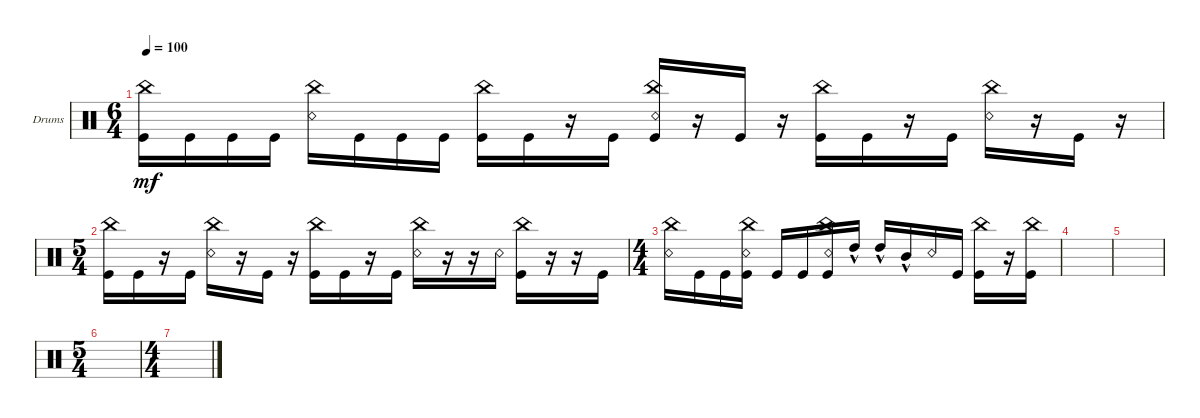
\defaultSystemsLayout 4
\bracketExtendMode groupsimilarinstruments
\firstSystemTrackNameOrientation horizontal
\otherSystemsTrackNameOrientation horizontal
\track ("Drumkit" "Drums") {instrument percussion}
\staff {score}
\articulation defaults
\ts (6 4)
\tempo 100
\clef neutral
\ks c
("Kick (hit)" "China (hit)").16{dy mf} "Kick (hit)".16 "Kick (hit)".16 "Kick (hit)".16 ("Snare (rim shot)" "China (hit)").16 "Kick (hit)".16 "Kick (hit)".16 "Kick (hit)".16 ("Kick (hit)" "China (hit)").16 "Kick (hit)".16 r.16 "Kick (hit)".16 ("Kick (hit)" "Snare (rim shot)" "China (hit)").16 r.16 "Kick (hit)".16 r.16 ("Kick (hit)" "China (hit)").16 "Kick (hit)".16 r.16 "Kick (hit)".16 ("Snare (rim shot)" "China (hit)").16 r.16 "Kick (hit)".16 r.16 |
\ts (5 4)
("Kick (hit)" "China (hit)").16 "Kick (hit)".16 r.16 "Kick (hit)".16 ("Snare (rim shot)" "China (hit)").16 r.16 "Kick (hit)".16 r.16 ("Kick (hit)" "China (hit)").16 "Kick (hit)".16 r.16 "Kick (hit)".16 ("China (hit)" "Snare (rim shot)").16 r.16 r.16 "Snare (rim shot)".16 ("China (hit)" "Kick (hit)").16 r.16 r.16 "Kick (hit)".16 |
\ts (4 4)
("China (hit)" "Snare (rim shot)").16 "Kick (hit)".16 "Kick (hit)".16 ("Kick (hit)" "Snare (rim shot)" "China (hit)").16 "Kick (hit)".16 "Kick (hit)".16 ("Kick (hit)" "China (hit)" "Snare (rim shot)").16 "High Tom (hit)"{hac}.16 "High Tom (hit)"{hac}.16 "Mid Tom (hit)"{hac}.16 "Snare (rim shot)".16 "Kick (hit)".16 ("China (hit)" "Kick (hit)").16 r.16 ("China (hit)" "Kick (hit)").16 |
|
|
\ts (5 4)
|
\ts (4 4)
